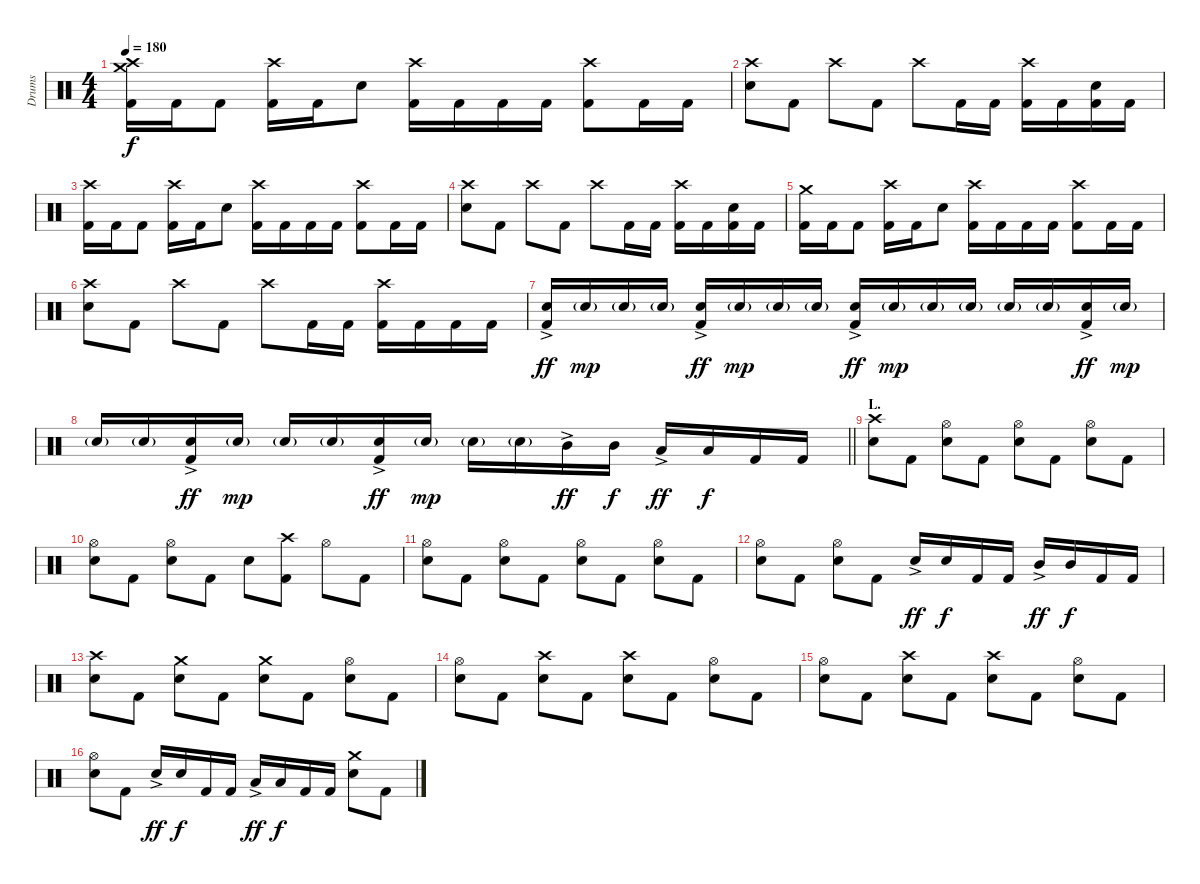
\track ("Drums" "Drums") {instrument percussion}
\staff {score}
\articulation defaults
\ts (4 4)
\tempo 180
\clef neutral
\ks c
("Crash medium (hit)" "Crash high (hit)" "Kick (hit) 2").16{dy f} "Kick (hit) 2".16 "Kick (hit) 2".8 ("Crash high (hit)" "Kick (hit) 2").16 "Kick (hit) 2".16 "Electric Snare (hit)".8 ("Crash high (hit)" "Kick (hit) 2").16 "Kick (hit) 2".16 "Kick (hit) 2".16 "Kick (hit) 2".16 ("Crash high (hit)" "Kick (hit) 2").8 "Kick (hit) 2".16 "Kick (hit) 2".16 |
("Crash high (hit)" "Electric Snare (hit)").8 "Kick (hit) 2".8 "Crash high (hit)".8 "Kick (hit) 2".8 "Crash high (hit)".8 "Kick (hit) 2".16 "Kick (hit) 2".16 ("Crash high (hit)" "Kick (hit) 2").16 "Kick (hit) 2".16 ("Electric Snare (hit)" "Kick (hit) 2").16 "Kick (hit) 2".16 |
("Crash high (hit)" "Kick (hit) 2").16 "Kick (hit) 2".16 "Kick (hit) 2".8 ("Crash high (hit)" "Kick (hit) 2").16 "Kick (hit) 2".16 "Electric Snare (hit)".8 ("Crash high (hit)" "Kick (hit) 2").16 "Kick (hit) 2".16 "Kick (hit) 2".16 "Kick (hit) 2".16 ("Crash high (hit)" "Kick (hit) 2").8 "Kick (hit) 2".16 "Kick (hit) 2".16 |
("Crash high (hit)" "Electric Snare (hit)").8 "Kick (hit) 2".8 "Crash high (hit)".8 "Kick (hit) 2".8 "Crash high (hit)".8 "Kick (hit) 2".16 "Kick (hit) 2".16 ("Crash high (hit)" "Kick (hit) 2").16 "Kick (hit) 2".16 ("Electric Snare (hit)" "Kick (hit) 2").16 "Kick (hit) 2".16 |
("Crash medium (hit)" "Kick (hit) 2").16 "Kick (hit) 2".16 "Kick (hit) 2".8 ("Crash high (hit)" "Kick (hit) 2").16 "Kick (hit) 2".16 "Electric Snare (hit)".8 ("Crash high (hit)" "Kick (hit) 2").16 "Kick (hit) 2".16 "Kick (hit) 2".16 "Kick (hit) 2".16 ("Crash high (hit)" "Kick (hit) 2").8 "Kick (hit) 2".16 "Kick (hit) 2".16 |
("Crash high (hit)" "Electric Snare (hit)").8 "Kick (hit) 2".8 "Crash high (hit)".8 "Kick (hit) 2".8 "Crash high (hit)".8 "Kick (hit) 2".16 "Kick (hit) 2".16 ("Crash high (hit)" "Kick (hit) 2").16 "Kick (hit) 2".16 "Kick (hit) 2".16 "Kick (hit) 2".16 |
("Electric Snare (hit)"{ac} "Kick (hit) 2").16{dy ff} "Electric Snare (hit)"{g}.16{dy mp} "Electric Snare (hit)"{g}.16 "Electric Snare (hit)"{g}.16 ("Electric Snare (hit)"{ac} "Kick (hit) 2").16{dy ff} "Electric Snare (hit)"{g}.16{dy mp} "Electric Snare (hit)"{g}.16 "Electric Snare (hit)"{g}.16 ("Electric Snare (hit)"{ac} "Kick (hit) 2").16{dy ff} "Electric Snare (hit)"{g}.16{dy mp} "Electric Snare (hit)"{g}.16 "Electric Snare (hit)"{g}.16 "Electric Snare (hit)"{g}.16 "Electric Snare (hit)"{g}.16 ("Electric Snare (hit)"{ac} "Kick (hit) 2").16{dy ff} "Electric Snare (hit)"{g}.16{dy mp} |
\barLineRight lightlight "Electric Snare (hit)"{g}.16 "Electric Snare (hit)"{g}.16
("Electric Snare (hit)"{ac} "Kick (hit) 2").16{dy ff} "Electric Snare (hit)"{g}.16{dy mp} "Electric Snare (hit)"{g}.16 "Electric Snare (hit)"{g}.16 ("Electric Snare (hit)"{ac} "Kick (hit) 2").16{dy ff} "Electric Snare (hit)"{g}.16{dy mp} "Electric Snare (hit)"{g}.16 "Electric Snare (hit)"{g}.16 "Mid Tom (hit)"{ac}.16{dy ff} "Mid Tom (hit)".16{dy f} "Low Tom (hit)"{ac}.16{dy ff} "Low Tom (hit)".16{dy f} "Kick (hit) 2".16 "Kick (hit) 2".16 |
\section ("" "L.")
("Crash high (hit)" "Electric Snare (hit)").8 "Kick (hit) 2".8 ("Hi-Hat (open)" "Electric Snare (hit)").8 "Kick (hit) 2".8 ("Hi-Hat (open)" "Electric Snare (hit)").8 "Kick (hit) 2".8 ("Hi-Hat (open)" "Electric Snare (hit)").8 "Kick (hit) 2".8 |
("Hi-Hat (open)" "Electric Snare (hit)").8 "Kick (hit) 2".8 ("Hi-Hat (open)" "Electric Snare (hit)").8 "Kick (hit) 2".8 "Electric Snare (hit)".8 ("Crash high (hit)" "Kick (hit) 2").8 "Hi-Hat (open)".8 "Kick (hit) 2".8 |
("Hi-Hat (open)" "Electric Snare (hit)").8 "Kick (hit) 2".8 ("Hi-Hat (open)" "Electric Snare (hit)").8 "Kick (hit) 2".8 ("Hi-Hat (open)" "Electric Snare (hit)").8 "Kick (hit) 2".8 ("Hi-Hat (open)" "Electric Snare (hit)").8 "Kick (hit) 2".8 |
("Hi-Hat (open)" "Electric Snare (hit)").8 "Kick (hit) 2".8 ("Hi-Hat (open)" "Electric Snare (hit)").8 "Kick (hit) 2".8 "Electric Snare (hit)"{ac}.16{dy ff} "Electric Snare (hit)".16{dy f} "Kick (hit) 2".16 "Kick (hit) 2".16 "Mid Tom (hit)"{ac}.16{dy ff} "Mid Tom (hit)".16{dy f} "Kick (hit) 2".16 "Kick (hit) 2".16 |
("Crash high (hit)" "Electric Snare (hit)").8 "Kick (hit) 2".8 ("Crash medium (hit)" "Electric Snare (hit)").8 "Kick (hit) 2".8 ("Crash medium (hit)" "Electric Snare (hit)").8 "Kick (hit) 2".8 ("Hi-Hat (open)" "Electric Snare (hit)").8 "Kick (hit) 2".8 |
("Hi-Hat (open)" "Electric Snare (hit)").8 "Kick (hit) 2".8 ("Crash high (hit)" "Electric Snare (hit)").8 "Kick (hit) 2".8 ("Crash high (hit)" "Electric Snare (hit)").8 "Kick (hit) 2".8 ("Hi-Hat (open)" "Electric Snare (hit)").8 "Kick (hit) 2".8 |
("Hi-Hat (open)" "Electric Snare (hit)").8 "Kick (hit) 2".8 ("Crash high (hit)" "Electric Snare (hit)").8 "Kick (hit) 2".8 ("Crash high (hit)" "Electric Snare (hit)").8 "Kick (hit) 2".8 ("Hi-Hat (open)" "Electric Snare (hit)").8 "Kick (hit) 2".8 |
("Hi-Hat (open)" "Electric Snare (hit)").8 "Kick (hit) 2".8 "Electric Snare (hit)"{ac}.16{dy ff} "Electric Snare (hit)".16{dy f} "Kick (hit) 2".16 "Kick (hit) 2".16 "Low Tom (hit)"{ac}.16{dy ff} "Low Tom (hit)".16{dy f} "Kick (hit) 2".16 "Kick (hit) 2".16 ("Crash medium (hit)" "Electric Snare (hit)").8 "Kick (hit) 2".8
